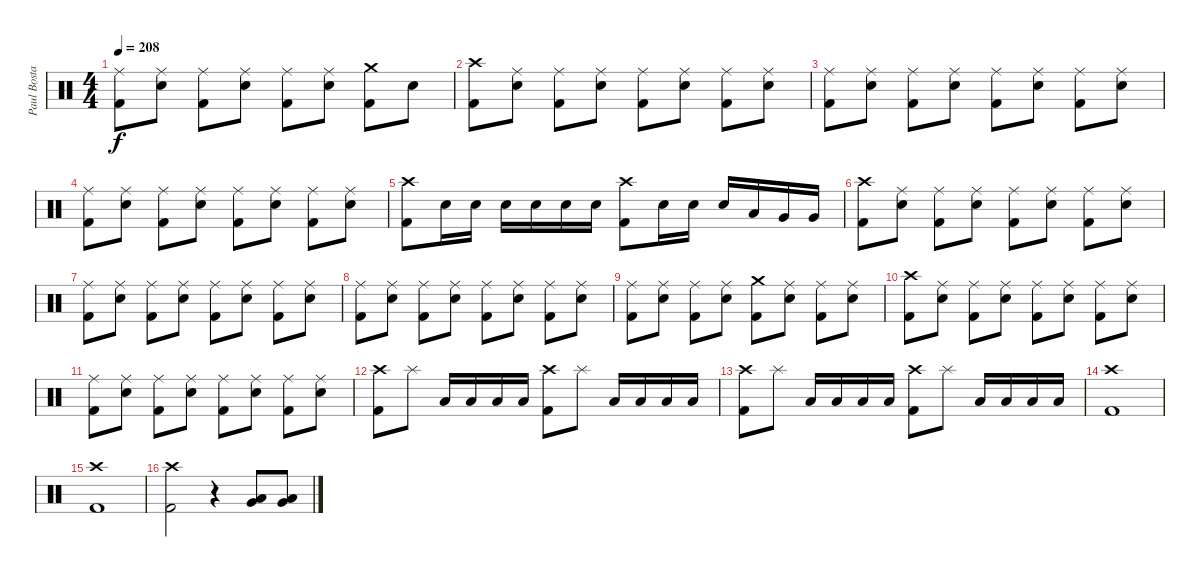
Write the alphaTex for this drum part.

\track ("Paul Bostaph" "Paul Bosta") {instrument percussion}
\staff {score}
\articulation defaults
\ts (4 4)
\tempo 208
\clef neutral
\ks c
("Ride (middle)" "Kick (hit) 2").8{dy f} ("Ride (middle)" "Electric Snare (hit)").8 ("Ride (middle)" "Kick (hit) 2").8 ("Ride (middle)" "Electric Snare (hit)").8 ("Ride (middle)" "Kick (hit) 2").8 ("Ride (middle)" "Electric Snare (hit)").8 ("Crash medium (hit)" "Kick (hit) 2").8 "Electric Snare (hit)".8 |
("Crash high (hit)" "Kick (hit) 2").8 ("Ride (middle)" "Electric Snare (hit)").8 ("Ride (middle)" "Kick (hit) 2").8 ("Ride (middle)" "Electric Snare (hit)").8 ("Ride (middle)" "Kick (hit) 2").8 ("Ride (middle)" "Electric Snare (hit)").8 ("Ride (middle)" "Kick (hit) 2").8 ("Ride (middle)" "Electric Snare (hit)").8 |
("Ride (middle)" "Kick (hit) 2").8 ("Ride (middle)" "Electric Snare (hit)").8 ("Ride (middle)" "Kick (hit) 2").8 ("Ride (middle)" "Electric Snare (hit)").8 ("Ride (middle)" "Kick (hit) 2").8 ("Ride (middle)" "Electric Snare (hit)").8 ("Ride (middle)" "Kick (hit) 2").8 ("Ride (middle)" "Electric Snare (hit)").8 |
("Ride (middle)" "Kick (hit) 2").8 ("Ride (middle)" "Electric Snare (hit)").8 ("Ride (middle)" "Kick (hit) 2").8 ("Ride (middle)" "Electric Snare (hit)").8 ("Ride (middle)" "Kick (hit) 2").8 ("Ride (middle)" "Electric Snare (hit)").8 ("Ride (middle)" "Kick (hit) 2").8 ("Ride (middle)" "Electric Snare (hit)").8 |
("Crash high (hit)" "Kick (hit) 2").8 "Electric Snare (hit)".16 "Electric Snare (hit)".16 "Electric Snare (hit)".16 "Electric Snare (hit)".16 "Electric Snare (hit)".16 "Electric Snare (hit)".16 ("Crash high (hit)" "Kick (hit) 2").8 "Electric Snare (hit)".16 "Electric Snare (hit)".16 "Electric Snare (hit)".16 "Low Tom (hit)".16 "Very Low Tom (hit)".16 "Very Low Tom (hit)".16 |
("Crash high (hit)" "Kick (hit) 2").8 ("Ride (middle)" "Electric Snare (hit)").8 ("Ride (middle)" "Kick (hit) 2").8 ("Ride (middle)" "Electric Snare (hit)").8 ("Ride (middle)" "Kick (hit) 2").8 ("Ride (middle)" "Electric Snare (hit)").8 ("Ride (middle)" "Kick (hit) 2").8 ("Ride (middle)" "Electric Snare (hit)").8 |
("Ride (middle)" "Kick (hit) 2").8 ("Ride (middle)" "Electric Snare (hit)").8 ("Ride (middle)" "Kick (hit) 2").8 ("Ride (middle)" "Electric Snare (hit)").8 ("Ride (middle)" "Kick (hit) 2").8 ("Ride (middle)" "Electric Snare (hit)").8 ("Ride (middle)" "Kick (hit) 2").8 ("Ride (middle)" "Electric Snare (hit)").8 |
("Ride (middle)" "Kick (hit) 2").8 ("Ride (middle)" "Electric Snare (hit)").8 ("Ride (middle)" "Kick (hit) 2").8 ("Ride (middle)" "Electric Snare (hit)").8 ("Ride (middle)" "Kick (hit) 2").8 ("Ride (middle)" "Electric Snare (hit)").8 ("Ride (middle)" "Kick (hit) 2").8 ("Ride (middle)" "Electric Snare (hit)").8 |
("Ride (middle)" "Kick (hit) 2").8 ("Ride (middle)" "Electric Snare (hit)").8 ("Ride (middle)" "Kick (hit) 2").8 ("Ride (middle)" "Electric Snare (hit)").8 ("Crash medium (hit)" "Kick (hit) 2").8 ("Ride (middle)" "Electric Snare (hit)").8 ("Ride (middle)" "Kick (hit) 2").8 ("Ride (middle)" "Electric Snare (hit)").8 |
("Crash high (hit)" "Kick (hit) 2").8 ("Ride (middle)" "Electric Snare (hit)").8 ("Ride (middle)" "Kick (hit) 2").8 ("Ride (middle)" "Electric Snare (hit)").8 ("Ride (middle)" "Kick (hit) 2").8 ("Ride (middle)" "Electric Snare (hit)").8 ("Ride (middle)" "Kick (hit) 2").8 ("Ride (middle)" "Electric Snare (hit)").8 |
("Ride (middle)" "Kick (hit) 2").8 ("Ride (middle)" "Electric Snare (hit)").8 ("Ride (middle)" "Kick (hit) 2").8 ("Ride (middle)" "Electric Snare (hit)").8 ("Ride (middle)" "Kick (hit) 2").8 ("Ride (middle)" "Electric Snare (hit)").8 ("Ride (middle)" "Kick (hit) 2").8 ("Ride (middle)" "Electric Snare (hit)").8 |
("Crash high (hit)" "Kick (hit) 2").8 "Splash (hit)".8 "Low Tom (hit)".16 "Low Tom (hit)".16 "Low Tom (hit)".16 "Low Tom (hit)".16 ("Crash high (hit)" "Kick (hit) 2").8 "Splash (hit)".8 "Low Tom (hit)".16 "Low Tom (hit)".16 "Low Tom (hit)".16 "Low Tom (hit)".16 |
("Crash high (hit)" "Kick (hit) 2").8 "Splash (hit)".8 "Low Tom (hit)".16 "Low Tom (hit)".16 "Low Tom (hit)".16 "Low Tom (hit)".16 ("Crash high (hit)" "Kick (hit) 2").8 "Splash (hit)".8 "Low Tom (hit)".16 "Low Tom (hit)".16 "Low Tom (hit)".16 "Low Tom (hit)".16 |
("Crash high (hit)" "Kick (hit) 2").1 |
("Crash high (hit)" "Kick (hit) 2").1 |
("Crash high (hit)" "Kick (hit) 2").2 r.4 ("Low Tom (hit)" "Very Low Tom (hit)").8 ("Low Tom (hit)" "Very Low Tom (hit)").8
